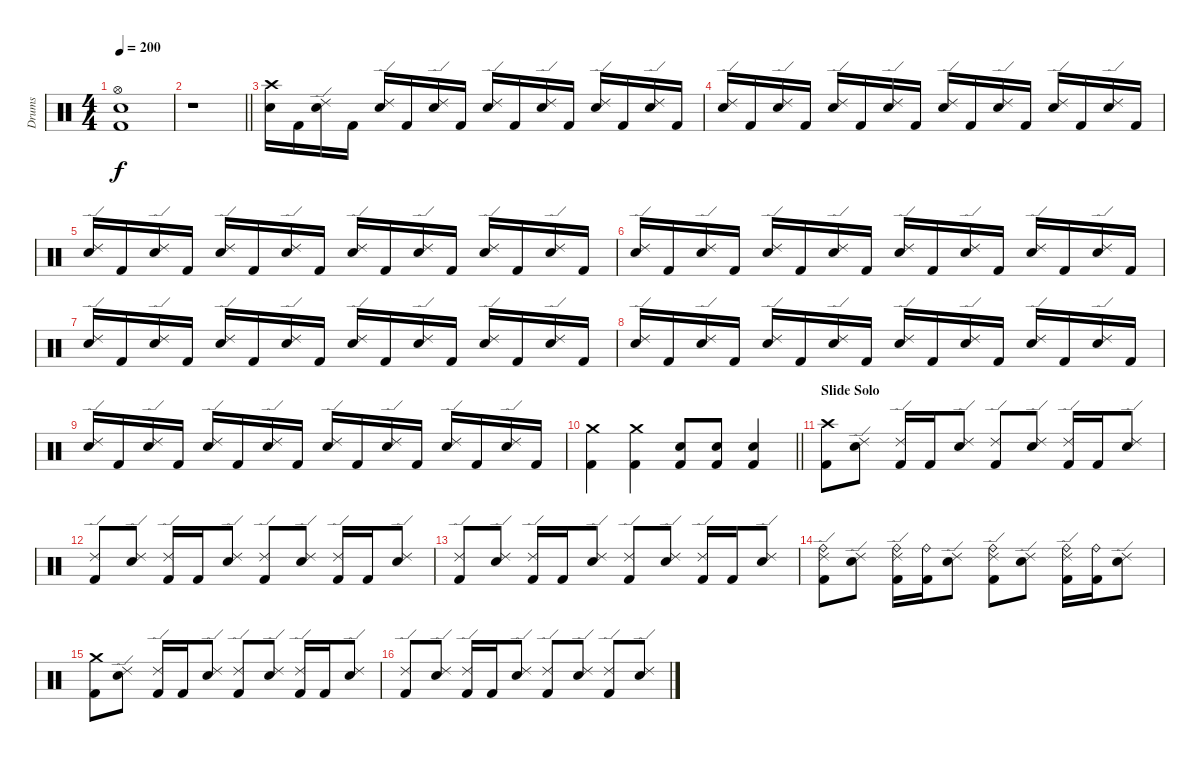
\track ("Drums" "Drums") {instrument percussion}
\staff {score}
\articulation defaults
\ts (4 4)
\tempo 200
\clef neutral
\ks c
("Kick (hit) 2" "Snare (hit) 2" "Hi-Hat (open)").1{dy f} |
\barLineRight lightlight
r.1 |
\section ("" "")
("Snare (hit) 2" "Crash high (hit)").16 "Kick (hit) 2".16 ("Snare (hit) 2" "Ride (edge) 2").16 "Kick (hit) 2".16 ("Snare (hit) 2" "Ride (edge) 2").16 "Kick (hit) 2".16 ("Snare (hit) 2" "Ride (edge) 2").16 "Kick (hit) 2".16 ("Snare (hit) 2" "Ride (edge) 2").16 "Kick (hit) 2".16 ("Snare (hit) 2" "Ride (edge) 2").16 "Kick (hit) 2".16 ("Snare (hit) 2" "Ride (edge) 2").16 "Kick (hit) 2".16 ("Snare (hit) 2" "Ride (edge) 2").16 "Kick (hit) 2".16 |
("Snare (hit) 2" "Ride (edge) 2").16 "Kick (hit) 2".16 ("Snare (hit) 2" "Ride (edge) 2").16 "Kick (hit) 2".16 ("Snare (hit) 2" "Ride (edge) 2").16 "Kick (hit) 2".16 ("Snare (hit) 2" "Ride (edge) 2").16 "Kick (hit) 2".16 ("Snare (hit) 2" "Ride (edge) 2").16 "Kick (hit) 2".16 ("Snare (hit) 2" "Ride (edge) 2").16 "Kick (hit) 2".16 ("Snare (hit) 2" "Ride (edge) 2").16 "Kick (hit) 2".16 ("Snare (hit) 2" "Ride (edge) 2").16 "Kick (hit) 2".16 |
("Snare (hit) 2" "Ride (edge) 2").16 "Kick (hit) 2".16 ("Snare (hit) 2" "Ride (edge) 2").16 "Kick (hit) 2".16 ("Snare (hit) 2" "Ride (edge) 2").16 "Kick (hit) 2".16 ("Snare (hit) 2" "Ride (edge) 2").16 "Kick (hit) 2".16 ("Snare (hit) 2" "Ride (edge) 2").16 "Kick (hit) 2".16 ("Snare (hit) 2" "Ride (edge) 2").16 "Kick (hit) 2".16 ("Snare (hit) 2" "Ride (edge) 2").16 "Kick (hit) 2".16 ("Snare (hit) 2" "Ride (edge) 2").16 "Kick (hit) 2".16 |
("Snare (hit) 2" "Ride (edge) 2").16 "Kick (hit) 2".16 ("Snare (hit) 2" "Ride (edge) 2").16 "Kick (hit) 2".16 ("Snare (hit) 2" "Ride (edge) 2").16 "Kick (hit) 2".16 ("Snare (hit) 2" "Ride (edge) 2").16 "Kick (hit) 2".16 ("Snare (hit) 2" "Ride (edge) 2").16 "Kick (hit) 2".16 ("Snare (hit) 2" "Ride (edge) 2").16 "Kick (hit) 2".16 ("Snare (hit) 2" "Ride (edge) 2").16 "Kick (hit) 2".16 ("Snare (hit) 2" "Ride (edge) 2").16 "Kick (hit) 2".16 |
("Snare (hit) 2" "Ride (edge) 2").16 "Kick (hit) 2".16 ("Snare (hit) 2" "Ride (edge) 2").16 "Kick (hit) 2".16 ("Snare (hit) 2" "Ride (edge) 2").16 "Kick (hit) 2".16 ("Snare (hit) 2" "Ride (edge) 2").16 "Kick (hit) 2".16 ("Snare (hit) 2" "Ride (edge) 2").16 "Kick (hit) 2".16 ("Snare (hit) 2" "Ride (edge) 2").16 "Kick (hit) 2".16 ("Snare (hit) 2" "Ride (edge) 2").16 "Kick (hit) 2".16 ("Snare (hit) 2" "Ride (edge) 2").16 "Kick (hit) 2".16 |
("Snare (hit) 2" "Ride (edge) 2").16 "Kick (hit) 2".16 ("Snare (hit) 2" "Ride (edge) 2").16 "Kick (hit) 2".16 ("Snare (hit) 2" "Ride (edge) 2").16 "Kick (hit) 2".16 ("Snare (hit) 2" "Ride (edge) 2").16 "Kick (hit) 2".16 ("Snare (hit) 2" "Ride (edge) 2").16 "Kick (hit) 2".16 ("Snare (hit) 2" "Ride (edge) 2").16 "Kick (hit) 2".16 ("Snare (hit) 2" "Ride (edge) 2").16 "Kick (hit) 2".16 ("Snare (hit) 2" "Ride (edge) 2").16 "Kick (hit) 2".16 |
("Snare (hit) 2" "Ride (edge) 2").16 "Kick (hit) 2".16 ("Snare (hit) 2" "Ride (edge) 2").16 "Kick (hit) 2".16 ("Snare (hit) 2" "Ride (edge) 2").16 "Kick (hit) 2".16 ("Snare (hit) 2" "Ride (edge) 2").16 "Kick (hit) 2".16 ("Snare (hit) 2" "Ride (edge) 2").16 "Kick (hit) 2".16 ("Snare (hit) 2" "Ride (edge) 2").16 "Kick (hit) 2".16 ("Snare (hit) 2" "Ride (edge) 2").16 "Kick (hit) 2".16 ("Snare (hit) 2" "Ride (edge) 2").16 "Kick (hit) 2".16 |
\barLineRight lightlight
("Kick (hit) 2" "Crash medium (hit)").4 ("Kick (hit) 2" "Crash medium (hit)").4 ("Kick (hit) 2" "Snare (hit) 2").8 ("Kick (hit) 2" "Snare (hit) 2").8 ("Kick (hit) 2" "Snare (hit) 2").4 |
\section ("" "Slide Solo")
("Kick (hit) 2" "Crash high (hit)").8 ("Snare (hit) 2" "Ride (edge) 2").8 ("Kick (hit) 2" "Ride (edge) 2").16 "Kick (hit) 2".16 ("Snare (hit) 2" "Ride (edge) 2").8 ("Kick (hit) 2" "Ride (edge) 2").8 ("Snare (hit) 2" "Ride (edge) 2").8 ("Kick (hit) 2" "Ride (edge) 2").16 "Kick (hit) 2".16 ("Snare (hit) 2" "Ride (edge) 2").8 |
("Kick (hit) 2" "Ride (edge) 2").8 ("Snare (hit) 2" "Ride (edge) 2").8 ("Kick (hit) 2" "Ride (edge) 2").16 "Kick (hit) 2".16 ("Snare (hit) 2" "Ride (edge) 2").8 ("Kick (hit) 2" "Ride (edge) 2").8 ("Snare (hit) 2" "Ride (edge) 2").8 ("Kick (hit) 2" "Ride (edge) 2").16 "Kick (hit) 2".16 ("Snare (hit) 2" "Ride (edge) 2").8 |
("Kick (hit) 2" "Ride (edge) 2").8 ("Snare (hit) 2" "Ride (edge) 2").8 ("Kick (hit) 2" "Ride (edge) 2").16 "Kick (hit) 2".16 ("Snare (hit) 2" "Ride (edge) 2").8 ("Kick (hit) 2" "Ride (edge) 2").8 ("Snare (hit) 2" "Ride (edge) 2").8 ("Kick (hit) 2" "Ride (edge) 2").16 "Kick (hit) 2".16 ("Snare (hit) 2" "Ride (edge) 2").8 |
("Kick (hit) 2" "Ride (edge) 2" "Ride (bell)").8 ("Snare (hit) 2" "Ride (edge) 2").8 ("Kick (hit) 2" "Ride (edge) 2" "Ride (bell)").16 ("Kick (hit) 2" "Ride (bell)").16 ("Snare (hit) 2" "Ride (edge) 2").8 ("Kick (hit) 2" "Ride (edge) 2" "Ride (bell)").8 ("Snare (hit) 2" "Ride (edge) 2").8 ("Kick (hit) 2" "Ride (edge) 2" "Ride (bell)").16 ("Kick (hit) 2" "Ride (bell)").16 ("Snare (hit) 2" "Ride (edge) 2").8 |
("Kick (hit) 2" "Crash medium (hit)").8 ("Snare (hit) 2" "Ride (edge) 2").8 ("Kick (hit) 2" "Ride (edge) 2").16 "Kick (hit) 2".16 ("Snare (hit) 2" "Ride (edge) 2").8 ("Kick (hit) 2" "Ride (edge) 2").8 ("Snare (hit) 2" "Ride (edge) 2").8 ("Kick (hit) 2" "Ride (edge) 2").16 "Kick (hit) 2".16 ("Snare (hit) 2" "Ride (edge) 2").8 |
("Kick (hit) 2" "Ride (edge) 2").8 ("Snare (hit) 2" "Ride (edge) 2").8 ("Kick (hit) 2" "Ride (edge) 2").16 "Kick (hit) 2".16 ("Snare (hit) 2" "Ride (edge) 2").8 ("Kick (hit) 2" "Ride (edge) 2").8 ("Snare (hit) 2" "Ride (edge) 2").8 ("Kick (hit) 2" "Ride (edge) 2").8 ("Snare (hit) 2" "Ride (edge) 2").8
